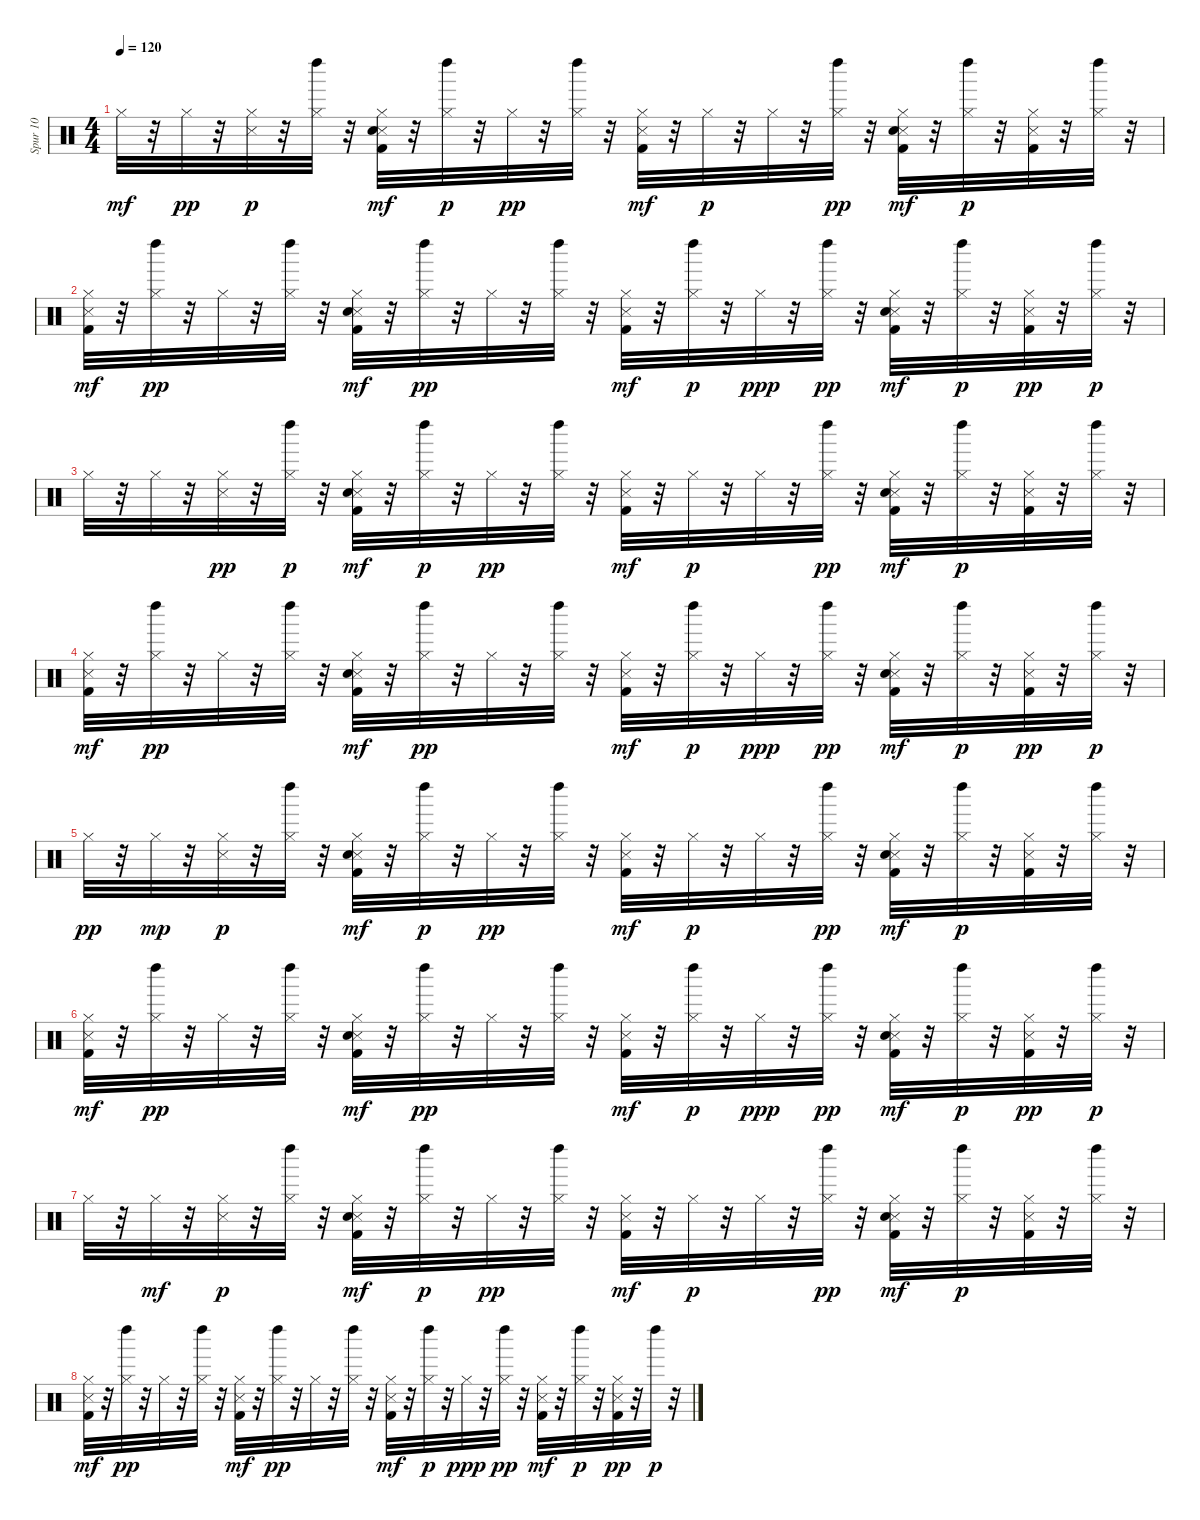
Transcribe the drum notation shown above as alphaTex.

\track ("Spur 10" "Spur 10") {instrument percussion}
\staff {score}
\articulation defaults
\ts (4 4)
\tempo 120
\clef neutral
\ks c "Hi-Hat (closed)".32{dy mf}
r.32 "Hi-Hat (closed)".32{dy pp} r.32 ("Snare (side stick) 3" "Hi-Hat (closed)").32{dy p} r.32 ("Hi-Hat (closed)" "Left Maraca (hit)").32 r.32 ("Kick (hit) 2" "Snare (side stick) 3" "Hand Clap (hit)" "Hi-Hat (closed)").32{dy mf} r.32 ("Hi-Hat (closed)" "Left Maraca (hit)").32{dy p} r.32 "Hi-Hat (closed)".32{dy pp} r.32 ("Hi-Hat (closed)" "Left Maraca (hit)").32 r.32 ("Kick (hit) 2" "Snare (side stick) 3" "Hi-Hat (closed)").32{dy mf} r.32 "Hi-Hat (closed)".32{dy p} r.32 "Hi-Hat (closed)".32 r.32 ("Hi-Hat (closed)" "Left Maraca (hit)").32{dy pp} r.32 ("Kick (hit) 2" "Snare (side stick) 3" "Hand Clap (hit)" "Hi-Hat (closed)").32{dy mf} r.32 ("Hi-Hat (closed)" "Left Maraca (hit)").32{dy p} r.32 ("Kick (hit) 2" "Snare (side stick) 3" "Hi-Hat (closed)").32 r.32 ("Hi-Hat (closed)" "Left Maraca (hit)").32 r.32 |
("Kick (hit) 2" "Snare (side stick) 3" "Hi-Hat (closed)").32{dy mf} r.32 ("Hi-Hat (closed)" "Left Maraca (hit)").32{dy pp} r.32 "Hi-Hat (closed)".32 r.32 ("Hi-Hat (closed)" "Left Maraca (hit)").32 r.32 ("Kick (hit) 2" "Snare (side stick) 3" "Hand Clap (hit)" "Hi-Hat (closed)").32{dy mf} r.32 ("Hi-Hat (closed)" "Left Maraca (hit)").32{dy pp} r.32 "Hi-Hat (closed)".32 r.32 ("Hi-Hat (closed)" "Left Maraca (hit)").32 r.32 ("Kick (hit) 2" "Snare (side stick) 3" "Hi-Hat (closed)").32{dy mf} r.32 ("Hi-Hat (closed)" "Left Maraca (hit)").32{dy p} r.32 "Hi-Hat (closed)".32{dy ppp} r.32 ("Hi-Hat (closed)" "Left Maraca (hit)").32{dy pp} r.32 ("Kick (hit) 2" "Snare (side stick) 3" "Hand Clap (hit)" "Hi-Hat (closed)").32{dy mf} r.32 ("Hi-Hat (closed)" "Left Maraca (hit)").32{dy p} r.32 ("Kick (hit) 2" "Snare (side stick) 3" "Hi-Hat (closed)").32{dy pp} r.32 ("Hi-Hat (closed)" "Left Maraca (hit)").32{dy p} r.32 |
"Hi-Hat (closed)".32 r.32 "Hi-Hat (closed)".32 r.32 ("Snare (side stick) 3" "Hi-Hat (closed)").32{dy pp} r.32 ("Hi-Hat (closed)" "Left Maraca (hit)").32{dy p} r.32 ("Kick (hit) 2" "Snare (side stick) 3" "Hand Clap (hit)" "Hi-Hat (closed)").32{dy mf} r.32 ("Hi-Hat (closed)" "Left Maraca (hit)").32{dy p} r.32 "Hi-Hat (closed)".32{dy pp} r.32 ("Hi-Hat (closed)" "Left Maraca (hit)").32 r.32 ("Kick (hit) 2" "Snare (side stick) 3" "Hi-Hat (closed)").32{dy mf} r.32 "Hi-Hat (closed)".32{dy p} r.32 "Hi-Hat (closed)".32 r.32 ("Hi-Hat (closed)" "Left Maraca (hit)").32{dy pp} r.32 ("Kick (hit) 2" "Snare (side stick) 3" "Hand Clap (hit)" "Hi-Hat (closed)").32{dy mf} r.32 ("Hi-Hat (closed)" "Left Maraca (hit)").32{dy p} r.32 ("Kick (hit) 2" "Snare (side stick) 3" "Hi-Hat (closed)").32 r.32 ("Hi-Hat (closed)" "Left Maraca (hit)").32 r.32 |
("Kick (hit) 2" "Snare (side stick) 3" "Hi-Hat (closed)").32{dy mf} r.32 ("Hi-Hat (closed)" "Left Maraca (hit)").32{dy pp} r.32 "Hi-Hat (closed)".32 r.32 ("Hi-Hat (closed)" "Left Maraca (hit)").32 r.32 ("Kick (hit) 2" "Snare (side stick) 3" "Hand Clap (hit)" "Hi-Hat (closed)").32{dy mf} r.32 ("Hi-Hat (closed)" "Left Maraca (hit)").32{dy pp} r.32 "Hi-Hat (closed)".32 r.32 ("Hi-Hat (closed)" "Left Maraca (hit)").32 r.32 ("Kick (hit) 2" "Snare (side stick) 3" "Hi-Hat (closed)").32{dy mf} r.32 ("Hi-Hat (closed)" "Left Maraca (hit)").32{dy p} r.32 "Hi-Hat (closed)".32{dy ppp} r.32 ("Hi-Hat (closed)" "Left Maraca (hit)").32{dy pp} r.32 ("Kick (hit) 2" "Snare (side stick) 3" "Hand Clap (hit)" "Hi-Hat (closed)").32{dy mf} r.32 ("Hi-Hat (closed)" "Left Maraca (hit)").32{dy p} r.32 ("Kick (hit) 2" "Snare (side stick) 3" "Hi-Hat (closed)").32{dy pp} r.32 ("Hi-Hat (closed)" "Left Maraca (hit)").32{dy p} r.32 |
"Hi-Hat (closed)".32{dy pp} r.32 "Hi-Hat (closed)".32{dy mp} r.32 ("Snare (side stick) 3" "Hi-Hat (closed)").32{dy p} r.32 ("Hi-Hat (closed)" "Left Maraca (hit)").32 r.32 ("Kick (hit) 2" "Snare (side stick) 3" "Hand Clap (hit)" "Hi-Hat (closed)").32{dy mf} r.32 ("Hi-Hat (closed)" "Left Maraca (hit)").32{dy p} r.32 "Hi-Hat (closed)".32{dy pp} r.32 ("Hi-Hat (closed)" "Left Maraca (hit)").32 r.32 ("Kick (hit) 2" "Snare (side stick) 3" "Hi-Hat (closed)").32{dy mf} r.32 "Hi-Hat (closed)".32{dy p} r.32 "Hi-Hat (closed)".32 r.32 ("Hi-Hat (closed)" "Left Maraca (hit)").32{dy pp} r.32 ("Kick (hit) 2" "Snare (side stick) 3" "Hand Clap (hit)" "Hi-Hat (closed)").32{dy mf} r.32 ("Hi-Hat (closed)" "Left Maraca (hit)").32{dy p} r.32 ("Kick (hit) 2" "Snare (side stick) 3" "Hi-Hat (closed)").32 r.32 ("Hi-Hat (closed)" "Left Maraca (hit)").32 r.32 |
("Kick (hit) 2" "Snare (side stick) 3" "Hi-Hat (closed)").32{dy mf} r.32 ("Hi-Hat (closed)" "Left Maraca (hit)").32{dy pp} r.32 "Hi-Hat (closed)".32 r.32 ("Hi-Hat (closed)" "Left Maraca (hit)").32 r.32 ("Kick (hit) 2" "Snare (side stick) 3" "Hand Clap (hit)" "Hi-Hat (closed)").32{dy mf} r.32 ("Hi-Hat (closed)" "Left Maraca (hit)").32{dy pp} r.32 "Hi-Hat (closed)".32 r.32 ("Hi-Hat (closed)" "Left Maraca (hit)").32 r.32 ("Kick (hit) 2" "Snare (side stick) 3" "Hi-Hat (closed)").32{dy mf} r.32 ("Hi-Hat (closed)" "Left Maraca (hit)").32{dy p} r.32 "Hi-Hat (closed)".32{dy ppp} r.32 ("Hi-Hat (closed)" "Left Maraca (hit)").32{dy pp} r.32 ("Kick (hit) 2" "Snare (side stick) 3" "Hand Clap (hit)" "Hi-Hat (closed)").32{dy mf} r.32 ("Hi-Hat (closed)" "Left Maraca (hit)").32{dy p} r.32 ("Kick (hit) 2" "Snare (side stick) 3" "Hi-Hat (closed)").32{dy pp} r.32 ("Hi-Hat (closed)" "Left Maraca (hit)").32{dy p} r.32 |
"Hi-Hat (closed)".32 r.32 "Hi-Hat (closed)".32{dy mf} r.32 ("Snare (side stick) 3" "Hi-Hat (closed)").32{dy p} r.32 ("Hi-Hat (closed)" "Left Maraca (hit)").32 r.32 ("Kick (hit) 2" "Snare (side stick) 3" "Hand Clap (hit)" "Hi-Hat (closed)").32{dy mf} r.32 ("Hi-Hat (closed)" "Left Maraca (hit)").32{dy p} r.32 "Hi-Hat (closed)".32{dy pp} r.32 ("Hi-Hat (closed)" "Left Maraca (hit)").32 r.32 ("Kick (hit) 2" "Snare (side stick) 3" "Hi-Hat (closed)").32{dy mf} r.32 "Hi-Hat (closed)".32{dy p} r.32 "Hi-Hat (closed)".32 r.32 ("Hi-Hat (closed)" "Left Maraca (hit)").32{dy pp} r.32 ("Kick (hit) 2" "Snare (side stick) 3" "Hand Clap (hit)" "Hi-Hat (closed)").32{dy mf} r.32 ("Hi-Hat (closed)" "Left Maraca (hit)").32{dy p} r.32 ("Kick (hit) 2" "Snare (side stick) 3" "Hi-Hat (closed)").32 r.32 ("Hi-Hat (closed)" "Left Maraca (hit)").32 r.32 |
("Kick (hit) 2" "Snare (side stick) 3" "Hi-Hat (closed)").32{dy mf} r.32 ("Hi-Hat (closed)" "Left Maraca (hit)").32{dy pp} r.32 "Hi-Hat (closed)".32 r.32 ("Hi-Hat (closed)" "Left Maraca (hit)").32 r.32 ("Kick (hit) 2" "Snare (side stick) 3" "Hi-Hat (closed)").32{dy mf} r.32 ("Hi-Hat (closed)" "Left Maraca (hit)").32{dy pp} r.32 "Hi-Hat (closed)".32 r.32 ("Hi-Hat (closed)" "Left Maraca (hit)").32 r.32 ("Kick (hit) 2" "Snare (side stick) 3" "Hi-Hat (closed)").32{dy mf} r.32 ("Hi-Hat (closed)" "Left Maraca (hit)").32{dy p} r.32 "Hi-Hat (closed)".32{dy ppp} r.32 ("Hi-Hat (closed)" "Left Maraca (hit)").32{dy pp} r.32 ("Kick (hit) 2" "Snare (side stick) 3" "Hi-Hat (closed)").32{dy mf} r.32 ("Hi-Hat (closed)" "Left Maraca (hit)").32{dy p} r.32 ("Kick (hit) 2" "Snare (side stick) 3" "Hi-Hat (closed)").32{dy pp} r.32 "Left Maraca (hit)".32{dy p} r.32
